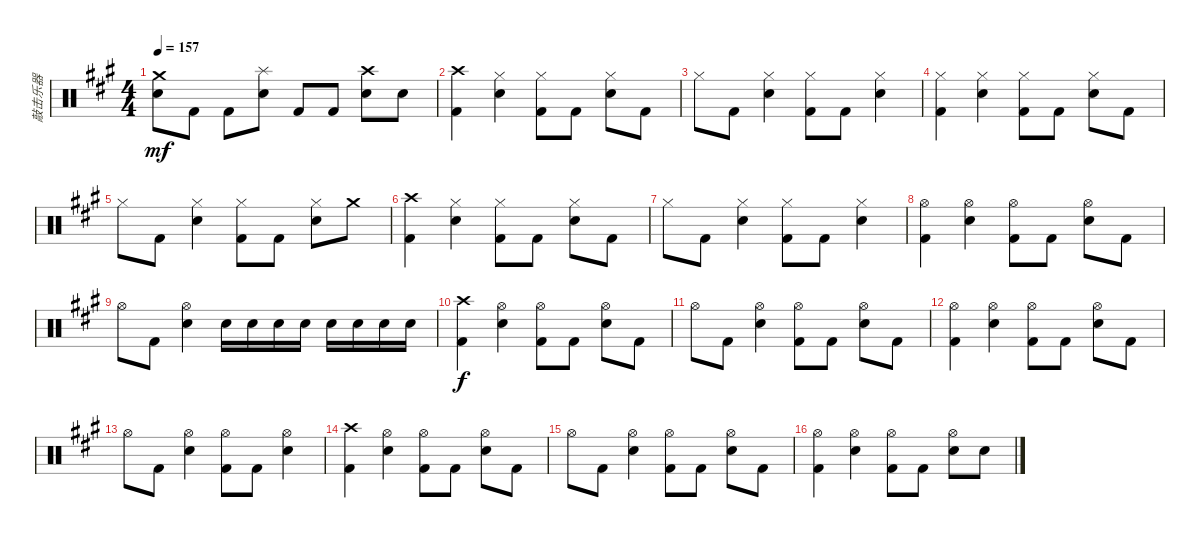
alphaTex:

\track ("敲击乐器" "敲击乐器") {instrument percussion}
\staff {score}
\articulation defaults
\ts (4 4)
\tempo 157
\clef neutral
\ks f#minor
("Crash medium (hit)" "Electric Snare (hit)").8{dy mf} "Kick (hit) 2".8 "Kick (hit) 2".8 ("Splash (hit)" "Electric Snare (hit)").8 "Kick (hit) 2".8 "Kick (hit) 2".8 ("Crash high (hit)" "Electric Snare (hit)").8 "Electric Snare (hit)".8 |
("Crash high (hit)" "Kick (hit) 2").4 ("Hi-Hat (closed)" "Electric Snare (hit)").4 ("Hi-Hat (closed)" "Kick (hit) 2").8 "Kick (hit) 2".8 ("Hi-Hat (closed)" "Electric Snare (hit)").8 "Kick (hit) 2".8 |
"Hi-Hat (closed)".8 "Kick (hit) 2".8 ("Hi-Hat (closed)" "Electric Snare (hit)").4 ("Hi-Hat (closed)" "Kick (hit) 2").8 "Kick (hit) 2".8 ("Hi-Hat (closed)" "Electric Snare (hit)").4 |
("Hi-Hat (closed)" "Kick (hit) 2").4 ("Hi-Hat (closed)" "Electric Snare (hit)").4 ("Hi-Hat (closed)" "Kick (hit) 2").8 "Kick (hit) 2".8 ("Hi-Hat (closed)" "Electric Snare (hit)").8 "Kick (hit) 2".8 |
"Hi-Hat (closed)".8 "Kick (hit) 2".8 ("Hi-Hat (closed)" "Electric Snare (hit)").4 ("Hi-Hat (closed)" "Kick (hit) 2").8 "Kick (hit) 2".8 ("Hi-Hat (closed)" "Electric Snare (hit)").8 "Crash medium (hit)".8 |
("Crash high (hit)" "Kick (hit) 2").4 ("Hi-Hat (closed)" "Electric Snare (hit)").4 ("Hi-Hat (closed)" "Kick (hit) 2").8 "Kick (hit) 2".8 ("Hi-Hat (closed)" "Electric Snare (hit)").8 "Kick (hit) 2".8 |
"Hi-Hat (closed)".8 "Kick (hit) 2".8 ("Hi-Hat (closed)" "Electric Snare (hit)").4 ("Hi-Hat (closed)" "Kick (hit) 2").8 "Kick (hit) 2".8 ("Hi-Hat (closed)" "Electric Snare (hit)").4 |
("Hi-Hat (open)" "Kick (hit) 2").4 ("Hi-Hat (open)" "Electric Snare (hit)").4 ("Hi-Hat (open)" "Kick (hit) 2").8 "Kick (hit) 2".8 ("Hi-Hat (open)" "Electric Snare (hit)").8 "Kick (hit) 2".8 |
"Hi-Hat (open)".8 "Kick (hit) 2".8 ("Hi-Hat (open)" "Electric Snare (hit)").4 "Electric Snare (hit)".16 "Electric Snare (hit)".16 "Electric Snare (hit)".16 "Electric Snare (hit)".16 "Electric Snare (hit)".16 "Electric Snare (hit)".16 "Electric Snare (hit)".16 "Electric Snare (hit)".16 |
("Crash high (hit)" "Kick (hit) 2").4{dy f} ("Hi-Hat (open)" "Electric Snare (hit)").4 ("Hi-Hat (open)" "Kick (hit) 2").8 "Kick (hit) 2".8 ("Hi-Hat (open)" "Electric Snare (hit)").8 "Kick (hit) 2".8 |
"Hi-Hat (open)".8 "Kick (hit) 2".8 ("Hi-Hat (open)" "Snare (hit) 2").4 ("Hi-Hat (open)" "Kick (hit) 2").8 "Kick (hit) 2".8 ("Hi-Hat (open)" "Snare (hit) 2").8 "Kick (hit) 2".8 |
("Hi-Hat (open)" "Kick (hit) 2").4 ("Hi-Hat (open)" "Electric Snare (hit)").4 ("Hi-Hat (open)" "Kick (hit) 2").8 "Kick (hit) 2".8 ("Hi-Hat (open)" "Electric Snare (hit)").8 "Kick (hit) 2".8 |
"Hi-Hat (open)".8 "Kick (hit) 2".8 ("Hi-Hat (open)" "Snare (hit) 2").4 ("Hi-Hat (open)" "Kick (hit) 2").8 "Kick (hit) 2".8 ("Hi-Hat (open)" "Snare (hit) 2").4 |
("Crash high (hit)" "Kick (hit) 2").4 ("Hi-Hat (open)" "Electric Snare (hit)").4 ("Hi-Hat (open)" "Kick (hit) 2").8 "Kick (hit) 2".8 ("Hi-Hat (open)" "Electric Snare (hit)").8 "Kick (hit) 2".8 |
"Hi-Hat (open)".8 "Kick (hit) 2".8 ("Hi-Hat (open)" "Snare (hit) 2").4 ("Hi-Hat (open)" "Kick (hit) 2").8 "Kick (hit) 2".8 ("Hi-Hat (open)" "Snare (hit) 2").8 "Kick (hit) 2".8 |
("Hi-Hat (open)" "Kick (hit) 2").4 ("Hi-Hat (open)" "Electric Snare (hit)").4 ("Hi-Hat (open)" "Kick (hit) 2").8 "Kick (hit) 2".8 ("Hi-Hat (open)" "Electric Snare (hit)").8 "Electric Snare (hit)".8
